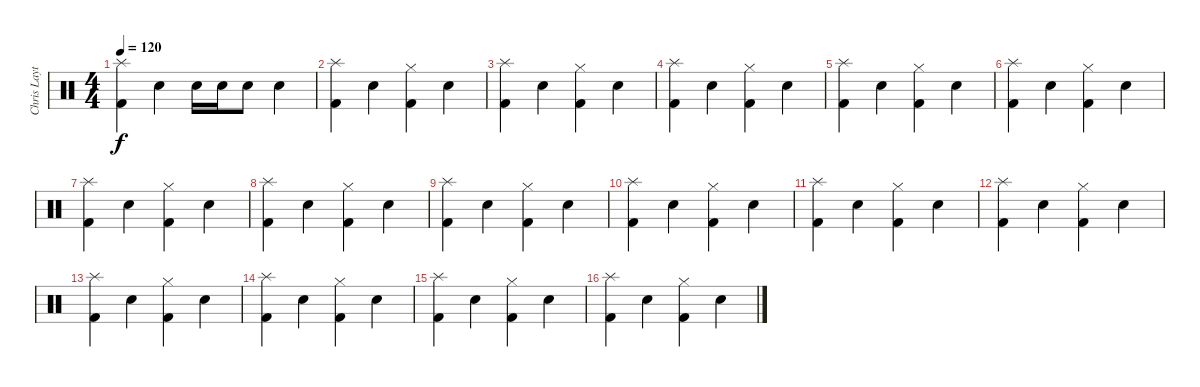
\track ("Chris Layton" "Chris Layt") {instrument percussion}
\staff {score}
\articulation defaults
\ts (4 4)
\tempo 120
\clef neutral
\ks c
("Kick (hit) 2" "Splash (hit)").4{dy f} "Snare (hit) 2".4 "Snare (hit) 2".16 "Snare (hit) 2".16 "Snare (hit) 2".8 "Snare (hit) 2".4 |
("Kick (hit) 2" "Splash (hit)").4 "Snare (hit) 2".4 ("Kick (hit) 2" "Hi-Hat (closed)").4 "Snare (hit) 2".4 |
("Kick (hit) 2" "Splash (hit)").4 "Snare (hit) 2".4 ("Kick (hit) 2" "Hi-Hat (closed)").4 "Snare (hit) 2".4 |
("Kick (hit) 2" "Splash (hit)").4 "Snare (hit) 2".4 ("Kick (hit) 2" "Hi-Hat (closed)").4 "Snare (hit) 2".4 |
("Kick (hit) 2" "Splash (hit)").4 "Snare (hit) 2".4 ("Kick (hit) 2" "Hi-Hat (closed)").4 "Snare (hit) 2".4 |
("Kick (hit) 2" "Splash (hit)").4 "Snare (hit) 2".4 ("Kick (hit) 2" "Hi-Hat (closed)").4 "Snare (hit) 2".4 |
("Kick (hit) 2" "Splash (hit)").4 "Snare (hit) 2".4 ("Kick (hit) 2" "Hi-Hat (closed)").4 "Snare (hit) 2".4 |
("Kick (hit) 2" "Splash (hit)").4 "Snare (hit) 2".4 ("Kick (hit) 2" "Hi-Hat (closed)").4 "Snare (hit) 2".4 |
("Kick (hit) 2" "Splash (hit)").4 "Snare (hit) 2".4 ("Kick (hit) 2" "Hi-Hat (closed)").4 "Snare (hit) 2".4 |
("Kick (hit) 2" "Splash (hit)").4 "Snare (hit) 2".4 ("Kick (hit) 2" "Hi-Hat (closed)").4 "Snare (hit) 2".4 |
("Kick (hit) 2" "Splash (hit)").4 "Snare (hit) 2".4 ("Kick (hit) 2" "Hi-Hat (closed)").4 "Snare (hit) 2".4 |
("Kick (hit) 2" "Splash (hit)").4 "Snare (hit) 2".4 ("Kick (hit) 2" "Hi-Hat (closed)").4 "Snare (hit) 2".4 |
("Kick (hit) 2" "Splash (hit)").4 "Snare (hit) 2".4 ("Kick (hit) 2" "Hi-Hat (closed)").4 "Snare (hit) 2".4 |
("Kick (hit) 2" "Splash (hit)").4 "Snare (hit) 2".4 ("Kick (hit) 2" "Hi-Hat (closed)").4 "Snare (hit) 2".4 |
("Kick (hit) 2" "Splash (hit)").4 "Snare (hit) 2".4 ("Kick (hit) 2" "Hi-Hat (closed)").4 "Snare (hit) 2".4 |
("Kick (hit) 2" "Splash (hit)").4 "Snare (hit) 2".4 ("Kick (hit) 2" "Hi-Hat (closed)").4 "Snare (hit) 2".4
